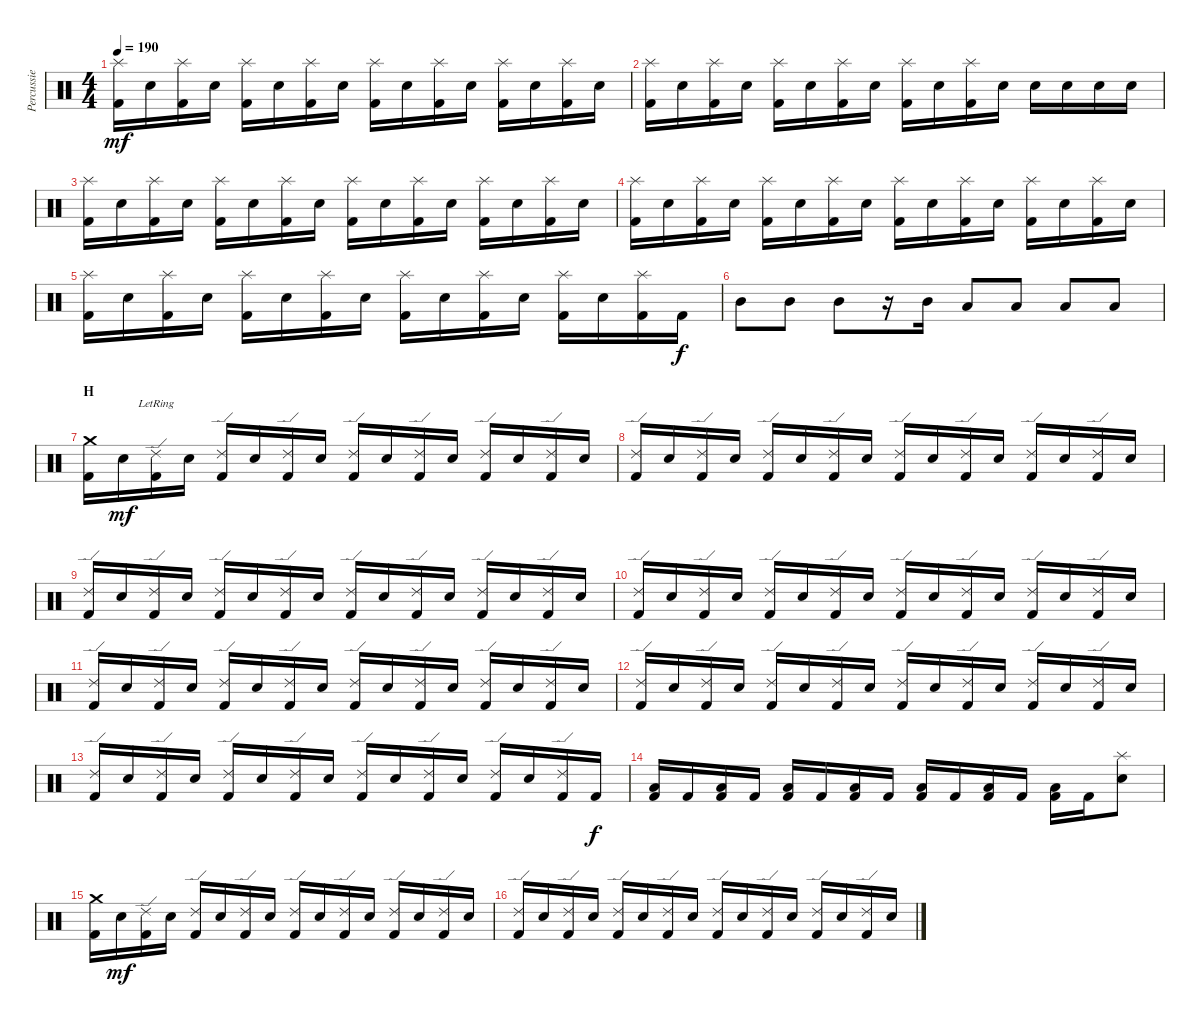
\track ("Percussie" "Percussie") {instrument percussion}
\staff {score}
\articulation defaults
\ts (4 4)
\tempo 190
\clef neutral
\ks c
("Splash (hit)" "Kick (hit) 2").16{dy mf} "Electric Snare (hit)".16 ("Splash (hit)" "Kick (hit) 2").16 "Electric Snare (hit)".16 ("Splash (hit)" "Kick (hit) 2").16 "Electric Snare (hit)".16 ("Splash (hit)" "Kick (hit) 2").16 "Electric Snare (hit)".16 ("Splash (hit)" "Kick (hit) 2").16 "Electric Snare (hit)".16 ("Splash (hit)" "Kick (hit) 2").16 "Electric Snare (hit)".16 ("Splash (hit)" "Kick (hit) 2").16 "Electric Snare (hit)".16 ("Splash (hit)" "Kick (hit) 2").16 "Electric Snare (hit)".16 |
("Splash (hit)" "Kick (hit) 2").16 "Electric Snare (hit)".16 ("Splash (hit)" "Kick (hit) 2").16 "Electric Snare (hit)".16 ("Splash (hit)" "Kick (hit) 2").16 "Electric Snare (hit)".16 ("Splash (hit)" "Kick (hit) 2").16 "Electric Snare (hit)".16 ("Splash (hit)" "Kick (hit) 2").16 "Electric Snare (hit)".16 ("Splash (hit)" "Kick (hit) 2").16 "Electric Snare (hit)".16 "Electric Snare (hit)".16 "Electric Snare (hit)".16 "Electric Snare (hit)".16 "Electric Snare (hit)".16 |
("Splash (hit)" "Kick (hit) 2").16 "Electric Snare (hit)".16 ("Splash (hit)" "Kick (hit) 2").16 "Electric Snare (hit)".16 ("Splash (hit)" "Kick (hit) 2").16 "Electric Snare (hit)".16 ("Splash (hit)" "Kick (hit) 2").16 "Electric Snare (hit)".16 ("Splash (hit)" "Kick (hit) 2").16 "Electric Snare (hit)".16 ("Splash (hit)" "Kick (hit) 2").16 "Electric Snare (hit)".16 ("Splash (hit)" "Kick (hit) 2").16 "Electric Snare (hit)".16 ("Splash (hit)" "Kick (hit) 2").16 "Electric Snare (hit)".16 |
("Splash (hit)" "Kick (hit) 2").16 "Electric Snare (hit)".16 ("Splash (hit)" "Kick (hit) 2").16 "Electric Snare (hit)".16 ("Splash (hit)" "Kick (hit) 2").16 "Electric Snare (hit)".16 ("Splash (hit)" "Kick (hit) 2").16 "Electric Snare (hit)".16 ("Splash (hit)" "Kick (hit) 2").16 "Electric Snare (hit)".16 ("Splash (hit)" "Kick (hit) 2").16 "Electric Snare (hit)".16 ("Splash (hit)" "Kick (hit) 2").16 "Electric Snare (hit)".16 ("Splash (hit)" "Kick (hit) 2").16 "Electric Snare (hit)".16 |
("Splash (hit)" "Kick (hit) 2").16 "Electric Snare (hit)".16 ("Splash (hit)" "Kick (hit) 2").16 "Electric Snare (hit)".16 ("Splash (hit)" "Kick (hit) 2").16 "Electric Snare (hit)".16 ("Splash (hit)" "Kick (hit) 2").16 "Electric Snare (hit)".16 ("Splash (hit)" "Kick (hit) 2").16 "Electric Snare (hit)".16 ("Splash (hit)" "Kick (hit) 2").16 "Electric Snare (hit)".16 ("Splash (hit)" "Kick (hit) 2").16 "Electric Snare (hit)".16 ("Splash (hit)" "Kick (hit) 2").16 "Kick (hit) 2".16{dy f} |
"Mid Tom (hit)".8 "Mid Tom (hit)".8 "Mid Tom (hit)".8 r.16 "Mid Tom (hit)".16 "Low Tom (hit)".8 "Low Tom (hit)".8 "Low Tom (hit)".8 "Low Tom (hit)".8 |
\section ("" "H")
("Crash medium (hit)" "Kick (hit) 2").16 "Electric Snare (hit)".16{dy mf} ("Ride (edge) 2"{lr} "Kick (hit) 2").16 "Electric Snare (hit)".16 ("Ride (edge) 2" "Kick (hit) 2").16 "Electric Snare (hit)".16 ("Ride (edge) 2" "Kick (hit) 2").16 "Electric Snare (hit)".16 ("Ride (edge) 2" "Kick (hit) 2").16 "Electric Snare (hit)".16 ("Ride (edge) 2" "Kick (hit) 2").16 "Electric Snare (hit)".16 ("Ride (edge) 2" "Kick (hit) 2").16 "Electric Snare (hit)".16 ("Ride (edge) 2" "Kick (hit) 2").16 "Electric Snare (hit)".16 |
("Ride (edge) 2" "Kick (hit) 2").16 "Electric Snare (hit)".16 ("Ride (edge) 2" "Kick (hit) 2").16 "Electric Snare (hit)".16 ("Ride (edge) 2" "Kick (hit) 2").16 "Electric Snare (hit)".16 ("Ride (edge) 2" "Kick (hit) 2").16 "Electric Snare (hit)".16 ("Ride (edge) 2" "Kick (hit) 2").16 "Electric Snare (hit)".16 ("Ride (edge) 2" "Kick (hit) 2").16 "Electric Snare (hit)".16 ("Ride (edge) 2" "Kick (hit) 2").16 "Electric Snare (hit)".16 ("Ride (edge) 2" "Kick (hit) 2").16 "Electric Snare (hit)".16 |
("Ride (edge) 2" "Kick (hit) 2").16 "Electric Snare (hit)".16 ("Ride (edge) 2" "Kick (hit) 2").16 "Electric Snare (hit)".16 ("Ride (edge) 2" "Kick (hit) 2").16 "Electric Snare (hit)".16 ("Ride (edge) 2" "Kick (hit) 2").16 "Electric Snare (hit)".16 ("Ride (edge) 2" "Kick (hit) 2").16 "Electric Snare (hit)".16 ("Ride (edge) 2" "Kick (hit) 2").16 "Electric Snare (hit)".16 ("Ride (edge) 2" "Kick (hit) 2").16 "Electric Snare (hit)".16 ("Ride (edge) 2" "Kick (hit) 2").16 "Electric Snare (hit)".16 |
("Ride (edge) 2" "Kick (hit) 2").16 "Electric Snare (hit)".16 ("Ride (edge) 2" "Kick (hit) 2").16 "Electric Snare (hit)".16 ("Ride (edge) 2" "Kick (hit) 2").16 "Electric Snare (hit)".16 ("Ride (edge) 2" "Kick (hit) 2").16 "Electric Snare (hit)".16 ("Ride (edge) 2" "Kick (hit) 2").16 "Electric Snare (hit)".16 ("Ride (edge) 2" "Kick (hit) 2").16 "Electric Snare (hit)".16 ("Ride (edge) 2" "Kick (hit) 2").16 "Electric Snare (hit)".16 ("Ride (edge) 2" "Kick (hit) 2").16 "Electric Snare (hit)".16 |
("Ride (edge) 2" "Kick (hit) 2").16 "Electric Snare (hit)".16 ("Ride (edge) 2" "Kick (hit) 2").16 "Electric Snare (hit)".16 ("Ride (edge) 2" "Kick (hit) 2").16 "Electric Snare (hit)".16 ("Ride (edge) 2" "Kick (hit) 2").16 "Electric Snare (hit)".16 ("Ride (edge) 2" "Kick (hit) 2").16 "Electric Snare (hit)".16 ("Ride (edge) 2" "Kick (hit) 2").16 "Electric Snare (hit)".16 ("Ride (edge) 2" "Kick (hit) 2").16 "Electric Snare (hit)".16 ("Ride (edge) 2" "Kick (hit) 2").16 "Electric Snare (hit)".16 |
("Ride (edge) 2" "Kick (hit) 2").16 "Electric Snare (hit)".16 ("Ride (edge) 2" "Kick (hit) 2").16 "Electric Snare (hit)".16 ("Ride (edge) 2" "Kick (hit) 2").16 "Electric Snare (hit)".16 ("Ride (edge) 2" "Kick (hit) 2").16 "Electric Snare (hit)".16 ("Ride (edge) 2" "Kick (hit) 2").16 "Electric Snare (hit)".16 ("Ride (edge) 2" "Kick (hit) 2").16 "Electric Snare (hit)".16 ("Ride (edge) 2" "Kick (hit) 2").16 "Electric Snare (hit)".16 ("Ride (edge) 2" "Kick (hit) 2").16 "Electric Snare (hit)".16 |
("Ride (edge) 2" "Kick (hit) 2").16 "Electric Snare (hit)".16 ("Ride (edge) 2" "Kick (hit) 2").16 "Electric Snare (hit)".16 ("Ride (edge) 2" "Kick (hit) 2").16 "Electric Snare (hit)".16 ("Ride (edge) 2" "Kick (hit) 2").16 "Electric Snare (hit)".16 ("Ride (edge) 2" "Kick (hit) 2").16 "Electric Snare (hit)".16 ("Ride (edge) 2" "Kick (hit) 2").16 "Electric Snare (hit)".16 ("Ride (edge) 2" "Kick (hit) 2").16 "Electric Snare (hit)".16 ("Ride (edge) 2" "Kick (hit) 2").16 "Kick (hit) 2".16{dy f} |
("Low Tom (hit)" "Kick (hit) 2").16 "Kick (hit) 2".16 ("Low Tom (hit)" "Kick (hit) 2").16 "Kick (hit) 2".16 ("Low Tom (hit)" "Kick (hit) 2").16 "Kick (hit) 2".16 ("Low Tom (hit)" "Kick (hit) 2").16 "Kick (hit) 2".16 ("Low Tom (hit)" "Kick (hit) 2").16 "Kick (hit) 2".16 ("Low Tom (hit)" "Kick (hit) 2").16 "Kick (hit) 2".16 ("Low Tom (hit)" "Kick (hit) 2").16 "Kick (hit) 2".16 ("Splash (hit)" "Electric Snare (hit)").8 |
("Crash medium (hit)" "Kick (hit) 2").16 "Electric Snare (hit)".16{dy mf} ("Ride (edge) 2" "Kick (hit) 2").16 "Electric Snare (hit)".16 ("Ride (edge) 2" "Kick (hit) 2").16 "Electric Snare (hit)".16 ("Ride (edge) 2" "Kick (hit) 2").16 "Electric Snare (hit)".16 ("Ride (edge) 2" "Kick (hit) 2").16 "Electric Snare (hit)".16 ("Ride (edge) 2" "Kick (hit) 2").16 "Electric Snare (hit)".16 ("Ride (edge) 2" "Kick (hit) 2").16 "Electric Snare (hit)".16 ("Ride (edge) 2" "Kick (hit) 2").16 "Electric Snare (hit)".16 |
("Ride (edge) 2" "Kick (hit) 2").16 "Electric Snare (hit)".16 ("Ride (edge) 2" "Kick (hit) 2").16 "Electric Snare (hit)".16 ("Ride (edge) 2" "Kick (hit) 2").16 "Electric Snare (hit)".16 ("Ride (edge) 2" "Kick (hit) 2").16 "Electric Snare (hit)".16 ("Ride (edge) 2" "Kick (hit) 2").16 "Electric Snare (hit)".16 ("Ride (edge) 2" "Kick (hit) 2").16 "Electric Snare (hit)".16 ("Ride (edge) 2" "Kick (hit) 2").16 "Electric Snare (hit)".16 ("Ride (edge) 2" "Kick (hit) 2").16 "Electric Snare (hit)".16
